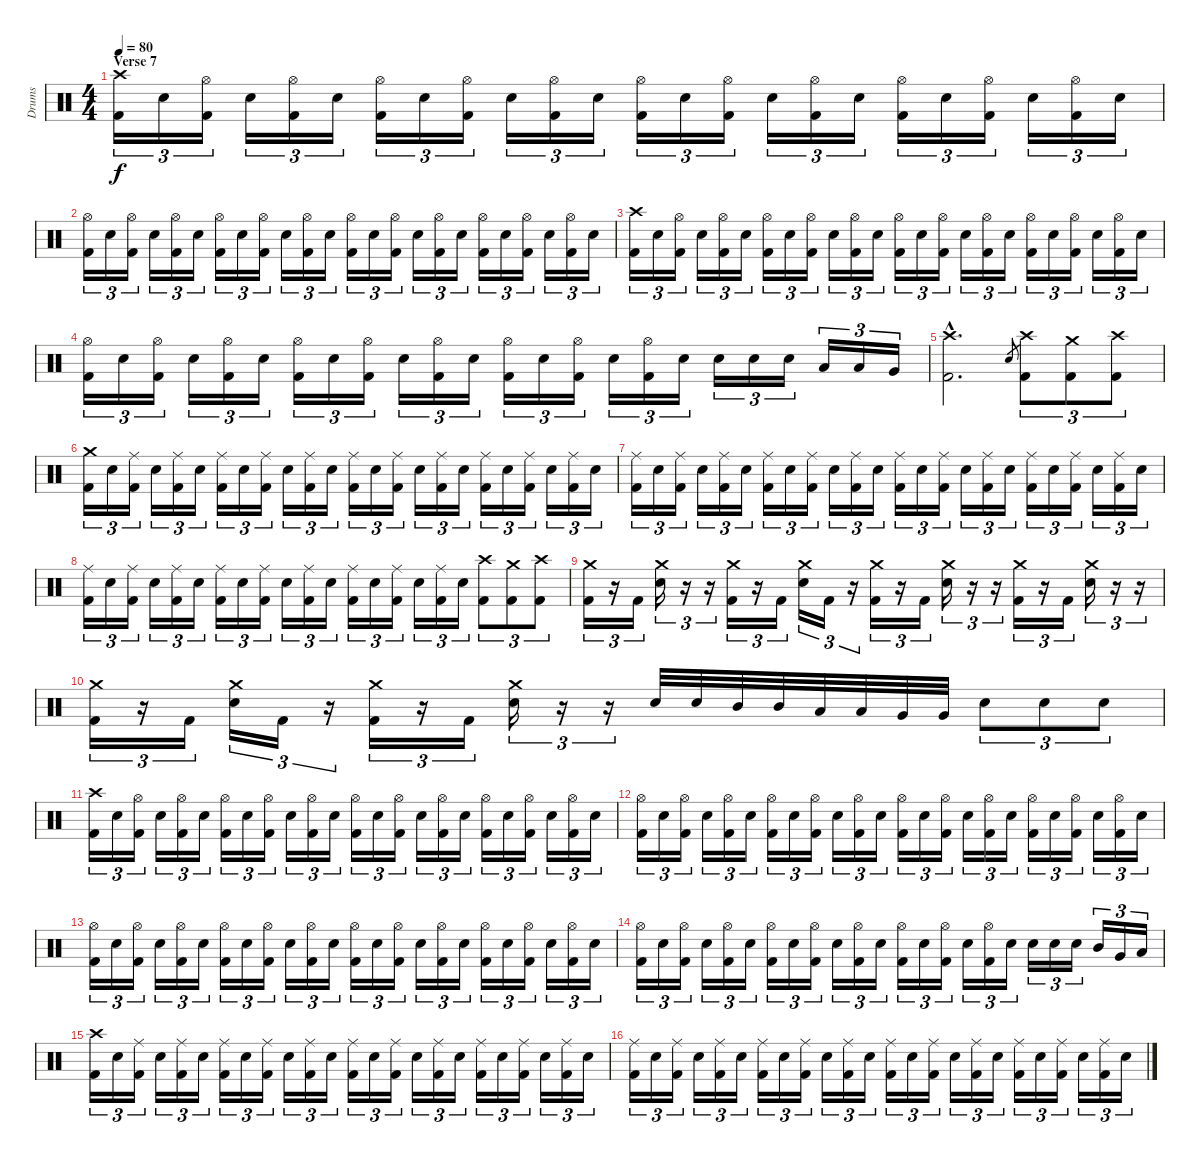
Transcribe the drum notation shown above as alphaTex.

\track ("Drums" "Drums") {instrument percussion}
\staff {score}
\articulation defaults
\ts (4 4)
\section ("" "Verse 7")
\tempo 80
\clef neutral
\ks c
("Crash high (hit)" "Kick (hit) 2").16{tu (3 2) dy f} "Electric Snare (hit)".16{tu (3 2)} ("Hi-Hat (open)" "Kick (hit) 2").16{tu (3 2)} "Electric Snare (hit)".16{tu (3 2)} ("Hi-Hat (open)" "Kick (hit) 2").16{tu (3 2)} "Electric Snare (hit)".16{tu (3 2)} ("Hi-Hat (open)" "Kick (hit) 2").16{tu (3 2)} "Electric Snare (hit)".16{tu (3 2)} ("Hi-Hat (open)" "Kick (hit) 2").16{tu (3 2)} "Electric Snare (hit)".16{tu (3 2)} ("Hi-Hat (open)" "Kick (hit) 2").16{tu (3 2)} "Electric Snare (hit)".16{tu (3 2)} ("Hi-Hat (open)" "Kick (hit) 2").16{tu (3 2)} "Electric Snare (hit)".16{tu (3 2)} ("Hi-Hat (open)" "Kick (hit) 2").16{tu (3 2)} "Electric Snare (hit)".16{tu (3 2)} ("Hi-Hat (open)" "Kick (hit) 2").16{tu (3 2)} "Electric Snare (hit)".16{tu (3 2)} ("Hi-Hat (open)" "Kick (hit) 2").16{tu (3 2)} "Electric Snare (hit)".16{tu (3 2)} ("Hi-Hat (open)" "Kick (hit) 2").16{tu (3 2)} "Electric Snare (hit)".16{tu (3 2)} ("Hi-Hat (open)" "Kick (hit) 2").16{tu (3 2)} "Electric Snare (hit)".16{tu (3 2)} |
("Hi-Hat (open)" "Kick (hit) 2").16{tu (3 2)} "Electric Snare (hit)".16{tu (3 2)} ("Hi-Hat (open)" "Kick (hit) 2").16{tu (3 2)} "Electric Snare (hit)".16{tu (3 2)} ("Hi-Hat (open)" "Kick (hit) 2").16{tu (3 2)} "Electric Snare (hit)".16{tu (3 2)} ("Hi-Hat (open)" "Kick (hit) 2").16{tu (3 2)} "Electric Snare (hit)".16{tu (3 2)} ("Hi-Hat (open)" "Kick (hit) 2").16{tu (3 2)} "Electric Snare (hit)".16{tu (3 2)} ("Hi-Hat (open)" "Kick (hit) 2").16{tu (3 2)} "Electric Snare (hit)".16{tu (3 2)} ("Hi-Hat (open)" "Kick (hit) 2").16{tu (3 2)} "Electric Snare (hit)".16{tu (3 2)} ("Hi-Hat (open)" "Kick (hit) 2").16{tu (3 2)} "Electric Snare (hit)".16{tu (3 2)} ("Hi-Hat (open)" "Kick (hit) 2").16{tu (3 2)} "Electric Snare (hit)".16{tu (3 2)} ("Hi-Hat (open)" "Kick (hit) 2").16{tu (3 2)} "Electric Snare (hit)".16{tu (3 2)} ("Hi-Hat (open)" "Kick (hit) 2").16{tu (3 2)} "Electric Snare (hit)".16{tu (3 2)} ("Hi-Hat (open)" "Kick (hit) 2").16{tu (3 2)} "Electric Snare (hit)".16{tu (3 2)} |
("Crash high (hit)" "Kick (hit) 2").16{tu (3 2)} "Electric Snare (hit)".16{tu (3 2)} ("Hi-Hat (open)" "Kick (hit) 2").16{tu (3 2)} "Electric Snare (hit)".16{tu (3 2)} ("Hi-Hat (open)" "Kick (hit) 2").16{tu (3 2)} "Electric Snare (hit)".16{tu (3 2)} ("Hi-Hat (open)" "Kick (hit) 2").16{tu (3 2)} "Electric Snare (hit)".16{tu (3 2)} ("Hi-Hat (open)" "Kick (hit) 2").16{tu (3 2)} "Electric Snare (hit)".16{tu (3 2)} ("Hi-Hat (open)" "Kick (hit) 2").16{tu (3 2)} "Electric Snare (hit)".16{tu (3 2)} ("Hi-Hat (open)" "Kick (hit) 2").16{tu (3 2)} "Electric Snare (hit)".16{tu (3 2)} ("Hi-Hat (open)" "Kick (hit) 2").16{tu (3 2)} "Electric Snare (hit)".16{tu (3 2)} ("Hi-Hat (open)" "Kick (hit) 2").16{tu (3 2)} "Electric Snare (hit)".16{tu (3 2)} ("Hi-Hat (open)" "Kick (hit) 2").16{tu (3 2)} "Electric Snare (hit)".16{tu (3 2)} ("Hi-Hat (open)" "Kick (hit) 2").16{tu (3 2)} "Electric Snare (hit)".16{tu (3 2)} ("Hi-Hat (open)" "Kick (hit) 2").16{tu (3 2)} "Electric Snare (hit)".16{tu (3 2)} |
("Hi-Hat (open)" "Kick (hit) 2").16{tu (3 2)} "Electric Snare (hit)".16{tu (3 2)} ("Hi-Hat (open)" "Kick (hit) 2").16{tu (3 2)} "Electric Snare (hit)".16{tu (3 2)} ("Hi-Hat (open)" "Kick (hit) 2").16{tu (3 2)} "Electric Snare (hit)".16{tu (3 2)} ("Hi-Hat (open)" "Kick (hit) 2").16{tu (3 2)} "Electric Snare (hit)".16{tu (3 2)} ("Hi-Hat (open)" "Kick (hit) 2").16{tu (3 2)} "Electric Snare (hit)".16{tu (3 2)} ("Hi-Hat (open)" "Kick (hit) 2").16{tu (3 2)} "Electric Snare (hit)".16{tu (3 2)} ("Hi-Hat (open)" "Kick (hit) 2").16{tu (3 2)} "Electric Snare (hit)".16{tu (3 2)} ("Hi-Hat (open)" "Kick (hit) 2").16{tu (3 2)} "Electric Snare (hit)".16{tu (3 2)} ("Hi-Hat (open)" "Kick (hit) 2").16{tu (3 2)} "Electric Snare (hit)".16{tu (3 2)} "Electric Snare (hit)".16{tu (3 2)} "Electric Snare (hit)".16{tu (3 2)} "Electric Snare (hit)".16{tu (3 2)} "Low Tom (hit)".16{tu (3 2)} "Low Tom (hit)".16{tu (3 2)} "Very Low Tom (hit)".16{tu (3 2)} |
("Crash high (hit)"{hac} "Kick (hit) 2"{hac}).2{d} "Electric Snare (hit)".8{gr} ("Crash high (hit)" "Kick (hit) 2").8{tu (3 2)} ("Crash medium (hit)" "Kick (hit) 2").8{tu (3 2)} ("Crash high (hit)" "Kick (hit) 2").8{tu (3 2)} |
("Crash medium (hit)" "Kick (hit) 2").16{tu (3 2)} "Electric Snare (hit)".16{tu (3 2)} ("Ride (middle)" "Kick (hit) 2").16{tu (3 2)} "Electric Snare (hit)".16{tu (3 2)} ("Ride (middle)" "Kick (hit) 2").16{tu (3 2)} "Electric Snare (hit)".16{tu (3 2)} ("Ride (middle)" "Kick (hit) 2").16{tu (3 2)} "Electric Snare (hit)".16{tu (3 2)} ("Ride (middle)" "Kick (hit) 2").16{tu (3 2)} "Electric Snare (hit)".16{tu (3 2)} ("Ride (middle)" "Kick (hit) 2").16{tu (3 2)} "Electric Snare (hit)".16{tu (3 2)} ("Ride (middle)" "Kick (hit) 2").16{tu (3 2)} "Electric Snare (hit)".16{tu (3 2)} ("Ride (middle)" "Kick (hit) 2").16{tu (3 2)} "Electric Snare (hit)".16{tu (3 2)} ("Ride (middle)" "Kick (hit) 2").16{tu (3 2)} "Electric Snare (hit)".16{tu (3 2)} ("Ride (middle)" "Kick (hit) 2").16{tu (3 2)} "Electric Snare (hit)".16{tu (3 2)} ("Ride (middle)" "Kick (hit) 2").16{tu (3 2)} "Electric Snare (hit)".16{tu (3 2)} ("Ride (middle)" "Kick (hit) 2").16{tu (3 2)} "Electric Snare (hit)".16{tu (3 2)} |
("Ride (middle)" "Kick (hit) 2").16{tu (3 2)} "Electric Snare (hit)".16{tu (3 2)} ("Ride (middle)" "Kick (hit) 2").16{tu (3 2)} "Electric Snare (hit)".16{tu (3 2)} ("Ride (middle)" "Kick (hit) 2").16{tu (3 2)} "Electric Snare (hit)".16{tu (3 2)} ("Ride (middle)" "Kick (hit) 2").16{tu (3 2)} "Electric Snare (hit)".16{tu (3 2)} ("Ride (middle)" "Kick (hit) 2").16{tu (3 2)} "Electric Snare (hit)".16{tu (3 2)} ("Ride (middle)" "Kick (hit) 2").16{tu (3 2)} "Electric Snare (hit)".16{tu (3 2)} ("Ride (middle)" "Kick (hit) 2").16{tu (3 2)} "Electric Snare (hit)".16{tu (3 2)} ("Ride (middle)" "Kick (hit) 2").16{tu (3 2)} "Electric Snare (hit)".16{tu (3 2)} ("Ride (middle)" "Kick (hit) 2").16{tu (3 2)} "Electric Snare (hit)".16{tu (3 2)} ("Ride (middle)" "Kick (hit) 2").16{tu (3 2)} "Electric Snare (hit)".16{tu (3 2)} ("Ride (middle)" "Kick (hit) 2").16{tu (3 2)} "Electric Snare (hit)".16{tu (3 2)} ("Ride (middle)" "Kick (hit) 2").16{tu (3 2)} "Electric Snare (hit)".16{tu (3 2)} |
("Ride (middle)" "Kick (hit) 2").16{tu (3 2)} "Electric Snare (hit)".16{tu (3 2)} ("Ride (middle)" "Kick (hit) 2").16{tu (3 2)} "Electric Snare (hit)".16{tu (3 2)} ("Ride (middle)" "Kick (hit) 2").16{tu (3 2)} "Electric Snare (hit)".16{tu (3 2)} ("Ride (middle)" "Kick (hit) 2").16{tu (3 2)} "Electric Snare (hit)".16{tu (3 2)} ("Ride (middle)" "Kick (hit) 2").16{tu (3 2)} "Electric Snare (hit)".16{tu (3 2)} ("Ride (middle)" "Kick (hit) 2").16{tu (3 2)} "Electric Snare (hit)".16{tu (3 2)} ("Ride (middle)" "Kick (hit) 2").16{tu (3 2)} "Electric Snare (hit)".16{tu (3 2)} ("Ride (middle)" "Kick (hit) 2").16{tu (3 2)} "Electric Snare (hit)".16{tu (3 2)} ("Ride (middle)" "Kick (hit) 2").16{tu (3 2)} "Electric Snare (hit)".16{tu (3 2)} ("Crash high (hit)" "Kick (hit) 2").8{tu (3 2)} ("Crash medium (hit)" "Kick (hit) 2").8{tu (3 2)} ("Crash high (hit)" "Kick (hit) 2").8{tu (3 2)} |
("Crash medium (hit)" "Kick (hit) 2").16{tu (3 2)} r.16{tu (3 2)} "Kick (hit) 2".16{tu (3 2)} ("Crash medium (hit)" "Electric Snare (hit)").16{tu (3 2)} r.16{tu (3 2)} r.16{tu (3 2)} ("Crash medium (hit)" "Kick (hit) 2").16{tu (3 2)} r.16{tu (3 2)} "Kick (hit) 2".16{tu (3 2)} ("Crash medium (hit)" "Electric Snare (hit)").16{tu (3 2)} "Kick (hit) 2".16{tu (3 2)} r.16{tu (3 2)} ("Crash medium (hit)" "Kick (hit) 2").16{tu (3 2)} r.16{tu (3 2)} "Kick (hit) 2".16{tu (3 2)} ("Crash medium (hit)" "Electric Snare (hit)").16{tu (3 2)} r.16{tu (3 2)} r.16{tu (3 2)} ("Crash medium (hit)" "Kick (hit) 2").16{tu (3 2)} r.16{tu (3 2)} "Kick (hit) 2".16{tu (3 2)} ("Crash medium (hit)" "Electric Snare (hit)").16{tu (3 2)} r.16{tu (3 2)} r.16{tu (3 2)} |
("Crash medium (hit)" "Kick (hit) 2").16{tu (3 2)} r.16{tu (3 2)} "Kick (hit) 2".16{tu (3 2)} ("Crash medium (hit)" "Electric Snare (hit)").16{tu (3 2)} "Kick (hit) 2".16{tu (3 2)} r.16{tu (3 2)} ("Crash medium (hit)" "Kick (hit) 2").16{tu (3 2)} r.16{tu (3 2)} "Kick (hit) 2".16{tu (3 2)} ("Crash medium (hit)" "Electric Snare (hit)").16{tu (3 2)} r.16{tu (3 2)} r.16{tu (3 2)} "Electric Snare (hit)".32 "Electric Snare (hit)".32 "Mid Tom (hit)".32 "Mid Tom (hit)".32 "Low Tom (hit)".32 "Low Tom (hit)".32 "Very Low Tom (hit)".32 "Very Low Tom (hit)".32 "Electric Snare (hit)".8{tu (3 2)} "Electric Snare (hit)".8{tu (3 2)} "Electric Snare (hit)".8{tu (3 2)} |
("Crash high (hit)" "Kick (hit) 2").16{tu (3 2)} "Electric Snare (hit)".16{tu (3 2)} ("Hi-Hat (open)" "Kick (hit) 2").16{tu (3 2)} "Electric Snare (hit)".16{tu (3 2)} ("Hi-Hat (open)" "Kick (hit) 2").16{tu (3 2)} "Electric Snare (hit)".16{tu (3 2)} ("Hi-Hat (open)" "Kick (hit) 2").16{tu (3 2)} "Electric Snare (hit)".16{tu (3 2)} ("Hi-Hat (open)" "Kick (hit) 2").16{tu (3 2)} "Electric Snare (hit)".16{tu (3 2)} ("Hi-Hat (open)" "Kick (hit) 2").16{tu (3 2)} "Electric Snare (hit)".16{tu (3 2)} ("Hi-Hat (open)" "Kick (hit) 2").16{tu (3 2)} "Electric Snare (hit)".16{tu (3 2)} ("Hi-Hat (open)" "Kick (hit) 2").16{tu (3 2)} "Electric Snare (hit)".16{tu (3 2)} ("Hi-Hat (open)" "Kick (hit) 2").16{tu (3 2)} "Electric Snare (hit)".16{tu (3 2)} ("Hi-Hat (open)" "Kick (hit) 2").16{tu (3 2)} "Electric Snare (hit)".16{tu (3 2)} ("Hi-Hat (open)" "Kick (hit) 2").16{tu (3 2)} "Electric Snare (hit)".16{tu (3 2)} ("Hi-Hat (open)" "Kick (hit) 2").16{tu (3 2)} "Electric Snare (hit)".16{tu (3 2)} |
("Hi-Hat (open)" "Kick (hit) 2").16{tu (3 2)} "Electric Snare (hit)".16{tu (3 2)} ("Hi-Hat (open)" "Kick (hit) 2").16{tu (3 2)} "Electric Snare (hit)".16{tu (3 2)} ("Hi-Hat (open)" "Kick (hit) 2").16{tu (3 2)} "Electric Snare (hit)".16{tu (3 2)} ("Hi-Hat (open)" "Kick (hit) 2").16{tu (3 2)} "Electric Snare (hit)".16{tu (3 2)} ("Hi-Hat (open)" "Kick (hit) 2").16{tu (3 2)} "Electric Snare (hit)".16{tu (3 2)} ("Hi-Hat (open)" "Kick (hit) 2").16{tu (3 2)} "Electric Snare (hit)".16{tu (3 2)} ("Hi-Hat (open)" "Kick (hit) 2").16{tu (3 2)} "Electric Snare (hit)".16{tu (3 2)} ("Hi-Hat (open)" "Kick (hit) 2").16{tu (3 2)} "Electric Snare (hit)".16{tu (3 2)} ("Hi-Hat (open)" "Kick (hit) 2").16{tu (3 2)} "Electric Snare (hit)".16{tu (3 2)} ("Hi-Hat (open)" "Kick (hit) 2").16{tu (3 2)} "Electric Snare (hit)".16{tu (3 2)} ("Hi-Hat (open)" "Kick (hit) 2").16{tu (3 2)} "Electric Snare (hit)".16{tu (3 2)} ("Hi-Hat (open)" "Kick (hit) 2").16{tu (3 2)} "Electric Snare (hit)".16{tu (3 2)} |
("Hi-Hat (open)" "Kick (hit) 2").16{tu (3 2)} "Electric Snare (hit)".16{tu (3 2)} ("Hi-Hat (open)" "Kick (hit) 2").16{tu (3 2)} "Electric Snare (hit)".16{tu (3 2)} ("Hi-Hat (open)" "Kick (hit) 2").16{tu (3 2)} "Electric Snare (hit)".16{tu (3 2)} ("Hi-Hat (open)" "Kick (hit) 2").16{tu (3 2)} "Electric Snare (hit)".16{tu (3 2)} ("Hi-Hat (open)" "Kick (hit) 2").16{tu (3 2)} "Electric Snare (hit)".16{tu (3 2)} ("Hi-Hat (open)" "Kick (hit) 2").16{tu (3 2)} "Electric Snare (hit)".16{tu (3 2)} ("Hi-Hat (open)" "Kick (hit) 2").16{tu (3 2)} "Electric Snare (hit)".16{tu (3 2)} ("Hi-Hat (open)" "Kick (hit) 2").16{tu (3 2)} "Electric Snare (hit)".16{tu (3 2)} ("Hi-Hat (open)" "Kick (hit) 2").16{tu (3 2)} "Electric Snare (hit)".16{tu (3 2)} ("Hi-Hat (open)" "Kick (hit) 2").16{tu (3 2)} "Electric Snare (hit)".16{tu (3 2)} ("Hi-Hat (open)" "Kick (hit) 2").16{tu (3 2)} "Electric Snare (hit)".16{tu (3 2)} ("Hi-Hat (open)" "Kick (hit) 2").16{tu (3 2)} "Electric Snare (hit)".16{tu (3 2)} |
("Hi-Hat (open)" "Kick (hit) 2").16{tu (3 2)} "Electric Snare (hit)".16{tu (3 2)} ("Hi-Hat (open)" "Kick (hit) 2").16{tu (3 2)} "Electric Snare (hit)".16{tu (3 2)} ("Hi-Hat (open)" "Kick (hit) 2").16{tu (3 2)} "Electric Snare (hit)".16{tu (3 2)} ("Hi-Hat (open)" "Kick (hit) 2").16{tu (3 2)} "Electric Snare (hit)".16{tu (3 2)} ("Hi-Hat (open)" "Kick (hit) 2").16{tu (3 2)} "Electric Snare (hit)".16{tu (3 2)} ("Hi-Hat (open)" "Kick (hit) 2").16{tu (3 2)} "Electric Snare (hit)".16{tu (3 2)} ("Hi-Hat (open)" "Kick (hit) 2").16{tu (3 2)} "Electric Snare (hit)".16{tu (3 2)} ("Hi-Hat (open)" "Kick (hit) 2").16{tu (3 2)} "Electric Snare (hit)".16{tu (3 2)} ("Hi-Hat (open)" "Kick (hit) 2").16{tu (3 2)} "Electric Snare (hit)".16{tu (3 2)} "Electric Snare (hit)".16{tu (3 2)} "Electric Snare (hit)".16{tu (3 2)} "Electric Snare (hit)".16{tu (3 2)} "Mid Tom (hit)".16{tu (3 2)} "Very Low Tom (hit)".16{tu (3 2)} "Low Tom (hit)".16{tu (3 2)} |
("Crash high (hit)" "Kick (hit) 2").16{tu (3 2)} "Electric Snare (hit)".16{tu (3 2)} ("Ride (middle)" "Kick (hit) 2").16{tu (3 2)} "Electric Snare (hit)".16{tu (3 2)} ("Ride (middle)" "Kick (hit) 2").16{tu (3 2)} "Electric Snare (hit)".16{tu (3 2)} ("Ride (middle)" "Kick (hit) 2").16{tu (3 2)} "Electric Snare (hit)".16{tu (3 2)} ("Ride (middle)" "Kick (hit) 2").16{tu (3 2)} "Electric Snare (hit)".16{tu (3 2)} ("Ride (middle)" "Kick (hit) 2").16{tu (3 2)} "Electric Snare (hit)".16{tu (3 2)} ("Ride (middle)" "Kick (hit) 2").16{tu (3 2)} "Electric Snare (hit)".16{tu (3 2)} ("Ride (middle)" "Kick (hit) 2").16{tu (3 2)} "Electric Snare (hit)".16{tu (3 2)} ("Ride (middle)" "Kick (hit) 2").16{tu (3 2)} "Electric Snare (hit)".16{tu (3 2)} ("Ride (middle)" "Kick (hit) 2").16{tu (3 2)} "Electric Snare (hit)".16{tu (3 2)} ("Ride (middle)" "Kick (hit) 2").16{tu (3 2)} "Electric Snare (hit)".16{tu (3 2)} ("Ride (middle)" "Kick (hit) 2").16{tu (3 2)} "Electric Snare (hit)".16{tu (3 2)} |
("Ride (middle)" "Kick (hit) 2").16{tu (3 2)} "Electric Snare (hit)".16{tu (3 2)} ("Ride (middle)" "Kick (hit) 2").16{tu (3 2)} "Electric Snare (hit)".16{tu (3 2)} ("Ride (middle)" "Kick (hit) 2").16{tu (3 2)} "Electric Snare (hit)".16{tu (3 2)} ("Ride (middle)" "Kick (hit) 2").16{tu (3 2)} "Electric Snare (hit)".16{tu (3 2)} ("Ride (middle)" "Kick (hit) 2").16{tu (3 2)} "Electric Snare (hit)".16{tu (3 2)} ("Ride (middle)" "Kick (hit) 2").16{tu (3 2)} "Electric Snare (hit)".16{tu (3 2)} ("Ride (middle)" "Kick (hit) 2").16{tu (3 2)} "Electric Snare (hit)".16{tu (3 2)} ("Ride (middle)" "Kick (hit) 2").16{tu (3 2)} "Electric Snare (hit)".16{tu (3 2)} ("Ride (middle)" "Kick (hit) 2").16{tu (3 2)} "Electric Snare (hit)".16{tu (3 2)} ("Ride (middle)" "Kick (hit) 2").16{tu (3 2)} "Electric Snare (hit)".16{tu (3 2)} ("Ride (middle)" "Kick (hit) 2").16{tu (3 2)} "Electric Snare (hit)".16{tu (3 2)} ("Ride (middle)" "Kick (hit) 2").16{tu (3 2)} "Electric Snare (hit)".16{tu (3 2)}
